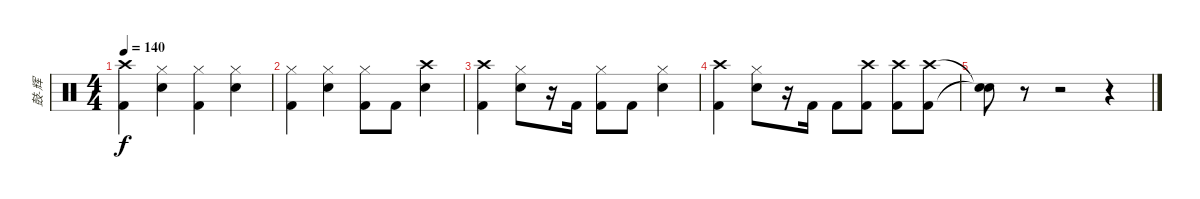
\track ("鼓-辉" "鼓-辉") {instrument percussion}
\staff {score}
\articulation defaults
\ts (4 4)
\tempo 140
\clef neutral
\ks c
("Crash high (hit)" "Kick (hit) 2").4{dy f} ("Hi-Hat (closed)" "Snare (hit) 2").4 ("Hi-Hat (closed)" "Kick (hit) 2").4 ("Hi-Hat (closed)" "Snare (hit) 2").4 |
("Hi-Hat (closed)" "Kick (hit) 2").4 ("Hi-Hat (closed)" "Snare (hit) 2").4 ("Hi-Hat (closed)" "Kick (hit) 2").8 "Kick (hit) 2".8 ("Crash high (hit)" "Snare (hit) 2").4 |
("Crash high (hit)" "Kick (hit) 2").4 ("Hi-Hat (closed)" "Snare (hit) 2").8 r.16 "Kick (hit) 2".16 ("Hi-Hat (closed)" "Kick (hit) 2").8 "Kick (hit) 2".8 ("Hi-Hat (closed)" "Snare (hit) 2").4 |
("Crash high (hit)" "Kick (hit) 2").4 ("Hi-Hat (closed)" "Snare (hit) 2").8 r.16 "Kick (hit) 2".16 "Kick (hit) 2".8 ("Crash high (hit)" "Kick (hit) 2").8 ("Crash high (hit)" "Kick (hit) 2").8 ("Crash high (hit)" "Kick (hit) 2").8 |
("Snare (hit)"{t} "Snare (hit)"{t}).8 r.8 r.2 r.4
